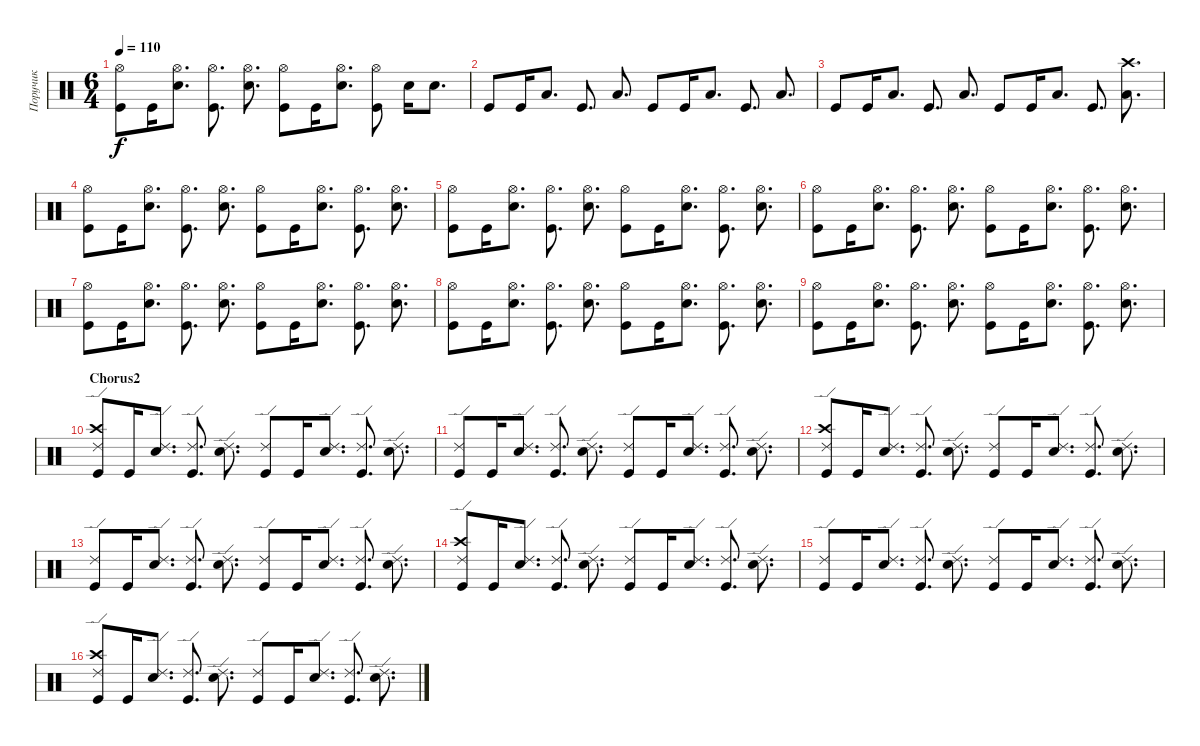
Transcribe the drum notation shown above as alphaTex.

\track ("Поручик" "Поручик") {instrument percussion}
\staff {score}
\articulation defaults
\ts (6 4)
\tempo 110
\clef neutral
\ks c
("Hi-Hat (open)" "Kick (hit)").8{dy f} "Kick (hit)".16 ("Hi-Hat (open)" "Snare (hit) 2").8{d} ("Hi-Hat (open)" "Kick (hit)").8{d} ("Hi-Hat (open)" "Snare (hit) 2").8{d} ("Hi-Hat (open)" "Kick (hit)").8 "Kick (hit)".16 ("Hi-Hat (open)" "Snare (hit) 2").8{d} ("Hi-Hat (open)" "Kick (hit)").8 "Snare (hit) 2".16 "Snare (hit) 2".8{d} |
"Kick (hit)".8 "Kick (hit)".16 "Low Floor Tom (hit)".8{d} "Kick (hit)".8{d} "Low Floor Tom (hit)".8{d} "Kick (hit)".8 "Kick (hit)".16 "Low Floor Tom (hit)".8{d} "Kick (hit)".8{d} "Low Floor Tom (hit)".8{d} |
"Kick (hit)".8 "Kick (hit)".16 "Low Floor Tom (hit)".8{d} "Kick (hit)".8{d} "Low Floor Tom (hit)".8{d} "Kick (hit)".8 "Kick (hit)".16 "Low Floor Tom (hit)".8{d} "Kick (hit)".8{d} ("Low Floor Tom (hit)" "Crash high (hit)").8{d} |
("Hi-Hat (open)" "Kick (hit)").8 "Kick (hit)".16 ("Hi-Hat (open)" "Snare (hit) 2").8{d} ("Hi-Hat (open)" "Kick (hit)").8{d} ("Hi-Hat (open)" "Snare (hit) 2").8{d} ("Hi-Hat (open)" "Kick (hit)").8 "Kick (hit)".16 ("Hi-Hat (open)" "Snare (hit) 2").8{d} ("Hi-Hat (open)" "Kick (hit)").8{d} ("Hi-Hat (open)" "Snare (hit) 2").8{d} |
("Hi-Hat (open)" "Kick (hit)").8 "Kick (hit)".16 ("Hi-Hat (open)" "Snare (hit) 2").8{d} ("Hi-Hat (open)" "Kick (hit)").8{d} ("Hi-Hat (open)" "Snare (hit) 2").8{d} ("Hi-Hat (open)" "Kick (hit)").8 "Kick (hit)".16 ("Hi-Hat (open)" "Snare (hit) 2").8{d} ("Hi-Hat (open)" "Kick (hit)").8{d} ("Hi-Hat (open)" "Snare (hit) 2").8{d} |
("Hi-Hat (open)" "Kick (hit)").8 "Kick (hit)".16 ("Hi-Hat (open)" "Snare (hit) 2").8{d} ("Hi-Hat (open)" "Kick (hit)").8{d} ("Hi-Hat (open)" "Snare (hit) 2").8{d} ("Hi-Hat (open)" "Kick (hit)").8 "Kick (hit)".16 ("Hi-Hat (open)" "Snare (hit) 2").8{d} ("Hi-Hat (open)" "Kick (hit)").8{d} ("Hi-Hat (open)" "Snare (hit) 2").8{d} |
("Hi-Hat (open)" "Kick (hit)").8 "Kick (hit)".16 ("Hi-Hat (open)" "Snare (hit) 2").8{d} ("Hi-Hat (open)" "Kick (hit)").8{d} ("Hi-Hat (open)" "Snare (hit) 2").8{d} ("Hi-Hat (open)" "Kick (hit)").8 "Kick (hit)".16 ("Hi-Hat (open)" "Snare (hit) 2").8{d} ("Hi-Hat (open)" "Kick (hit)").8{d} ("Hi-Hat (open)" "Snare (hit) 2").8{d} |
("Hi-Hat (open)" "Kick (hit)").8 "Kick (hit)".16 ("Hi-Hat (open)" "Snare (hit) 2").8{d} ("Hi-Hat (open)" "Kick (hit)").8{d} ("Hi-Hat (open)" "Snare (hit) 2").8{d} ("Hi-Hat (open)" "Kick (hit)").8 "Kick (hit)".16 ("Hi-Hat (open)" "Snare (hit) 2").8{d} ("Hi-Hat (open)" "Kick (hit)").8{d} ("Hi-Hat (open)" "Snare (hit) 2").8{d} |
("Hi-Hat (open)" "Kick (hit)").8 "Kick (hit)".16 ("Hi-Hat (open)" "Snare (hit) 2").8{d} ("Hi-Hat (open)" "Kick (hit)").8{d} ("Hi-Hat (open)" "Snare (hit) 2").8{d} ("Hi-Hat (open)" "Kick (hit)").8 "Kick (hit)".16 ("Hi-Hat (open)" "Snare (hit) 2").8{d} ("Hi-Hat (open)" "Kick (hit)").8{d} ("Hi-Hat (open)" "Snare (hit) 2").8{d} |
\section ("" "Chorus2")
("Ride (edge) 2" "Kick (hit)" "Crash high (hit)").8 "Kick (hit)".16 ("Ride (edge) 2" "Snare (hit) 2").8{d} ("Ride (edge) 2" "Kick (hit)").8{d} ("Ride (edge) 2" "Snare (hit) 2").8{d} ("Ride (edge) 2" "Kick (hit)").8 "Kick (hit)".16 ("Ride (edge) 2" "Snare (hit) 2").8{d} ("Ride (edge) 2" "Kick (hit)").8{d} ("Ride (edge) 2" "Snare (hit) 2").8{d} |
("Ride (edge) 2" "Kick (hit)").8 "Kick (hit)".16 ("Ride (edge) 2" "Snare (hit) 2").8{d} ("Ride (edge) 2" "Kick (hit)").8{d} ("Ride (edge) 2" "Snare (hit) 2").8{d} ("Ride (edge) 2" "Kick (hit)").8 "Kick (hit)".16 ("Ride (edge) 2" "Snare (hit) 2").8{d} ("Ride (edge) 2" "Kick (hit)").8{d} ("Ride (edge) 2" "Snare (hit) 2").8{d} |
("Ride (edge) 2" "Kick (hit)" "Crash high (hit)").8 "Kick (hit)".16 ("Ride (edge) 2" "Snare (hit) 2").8{d} ("Ride (edge) 2" "Kick (hit)").8{d} ("Ride (edge) 2" "Snare (hit) 2").8{d} ("Ride (edge) 2" "Kick (hit)").8 "Kick (hit)".16 ("Ride (edge) 2" "Snare (hit) 2").8{d} ("Ride (edge) 2" "Kick (hit)").8{d} ("Ride (edge) 2" "Snare (hit) 2").8{d} |
("Ride (edge) 2" "Kick (hit)").8 "Kick (hit)".16 ("Ride (edge) 2" "Snare (hit) 2").8{d} ("Ride (edge) 2" "Kick (hit)").8{d} ("Ride (edge) 2" "Snare (hit) 2").8{d} ("Ride (edge) 2" "Kick (hit)").8 "Kick (hit)".16 ("Ride (edge) 2" "Snare (hit) 2").8{d} ("Ride (edge) 2" "Kick (hit)").8{d} ("Ride (edge) 2" "Snare (hit) 2").8{d} |
("Ride (edge) 2" "Kick (hit)" "Crash high (hit)").8 "Kick (hit)".16 ("Ride (edge) 2" "Snare (hit) 2").8{d} ("Ride (edge) 2" "Kick (hit)").8{d} ("Ride (edge) 2" "Snare (hit) 2").8{d} ("Ride (edge) 2" "Kick (hit)").8 "Kick (hit)".16 ("Ride (edge) 2" "Snare (hit) 2").8{d} ("Ride (edge) 2" "Kick (hit)").8{d} ("Ride (edge) 2" "Snare (hit) 2").8{d} |
("Ride (edge) 2" "Kick (hit)").8 "Kick (hit)".16 ("Ride (edge) 2" "Snare (hit) 2").8{d} ("Ride (edge) 2" "Kick (hit)").8{d} ("Ride (edge) 2" "Snare (hit) 2").8{d} ("Ride (edge) 2" "Kick (hit)").8 "Kick (hit)".16 ("Ride (edge) 2" "Snare (hit) 2").8{d} ("Ride (edge) 2" "Kick (hit)").8{d} ("Ride (edge) 2" "Snare (hit) 2").8{d} |
("Ride (edge) 2" "Kick (hit)" "Crash high (hit)").8 "Kick (hit)".16 ("Ride (edge) 2" "Snare (hit) 2").8{d} ("Ride (edge) 2" "Kick (hit)").8{d} ("Ride (edge) 2" "Snare (hit) 2").8{d} ("Ride (edge) 2" "Kick (hit)").8 "Kick (hit)".16 ("Ride (edge) 2" "Snare (hit) 2").8{d} ("Ride (edge) 2" "Kick (hit)").8{d} ("Ride (edge) 2" "Snare (hit) 2").8{d}
